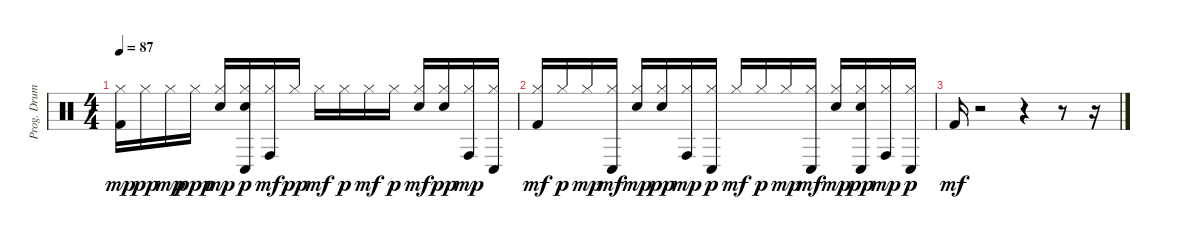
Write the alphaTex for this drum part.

\track ("Prog. Drums" "Prog. Drum") {instrument percussion}
\staff {score}
\articulation defaults
\ts (4 4)
\tempo 87
\clef neutral
\ks c
("Kick (hit) 2" "Hi-Hat (closed)").16{dy mp} "Hi-Hat (closed)".16{dy pp} "Hi-Hat (closed)".16{dy mp} "Hi-Hat (closed)".16{dy ppp} ("Hi-Hat (closed)" "Snare (hit) 2").16{dy mp} ("Snare (hit) 2" "Conga low (hit)" "Hi-Hat (closed)").16{dy p} ("Hi-Hat (closed)" "Conga high (hit)").16{dy mf} "Hi-Hat (closed)".16{dy pp} "Hi-Hat (closed)".16{dy mf} "Hi-Hat (closed)".16{dy p} "Hi-Hat (closed)".16{dy mf} "Hi-Hat (closed)".16{dy p} ("Snare (hit) 2" "Hi-Hat (closed)").16{dy mf} ("Hi-Hat (closed)" "Snare (hit) 2").16{dy pp} ("Conga high (hit)" "Hi-Hat (closed)").16{dy mp} ("Hi-Hat (closed)" "Conga low (hit)").16 |
("Kick (hit) 2" "Hi-Hat (closed)").16{dy mf} "Hi-Hat (closed)".16{dy p} "Hi-Hat (closed)".16{dy mp} ("Hi-Hat (closed)" "Conga low (hit)").16{dy mf} ("Hi-Hat (closed)" "Snare (hit) 2").16{dy mp} ("Snare (hit) 2" "Hi-Hat (closed)").16{dy pp} ("Conga high (hit)" "Hi-Hat (closed)").16{dy mp} ("Conga low (hit)" "Hi-Hat (closed)").16{dy p} "Hi-Hat (closed)".16{dy mf} "Hi-Hat (closed)".16{dy p} "Hi-Hat (closed)".16{dy mp} ("Hi-Hat (closed)" "Conga low (hit)").16{dy mf} ("Snare (hit) 2" "Hi-Hat (closed)").16{dy mp} ("Conga low (hit)" "Hi-Hat (closed)" "Snare (hit) 2").16{dy pp} ("Conga high (hit)" "Hi-Hat (closed)").16{dy mp} ("Conga low (hit)" "Hi-Hat (closed)").16{dy p} |
"Kick (hit) 2".16{dy mf} r.2 r.4 r.8 r.16
